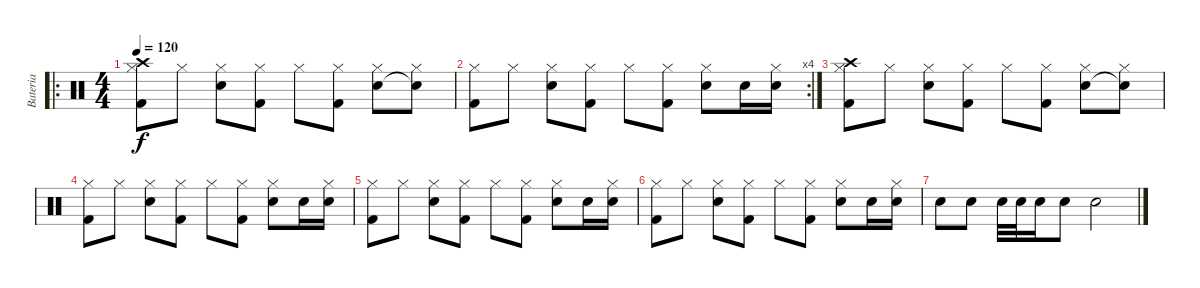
\track ("Bateria" "Bateria") {instrument percussion}
\staff {score}
\articulation defaults
\ro
\ts (4 4)
\tempo 120
\clef neutral
\ks c
("Hi-Hat (closed)" "Crash high (hit)" "Kick (hit) 2").8{dy f} "Hi-Hat (closed)".8 ("Hi-Hat (closed)" "Snare (hit) 2").8 ("Hi-Hat (closed)" "Kick (hit) 2").8 "Hi-Hat (closed)".8 ("Hi-Hat (closed)" "Kick (hit) 2").8 ("Hi-Hat (closed)" "Snare (hit) 2").8 ("Hi-Hat (closed)" "Snare (hit)"{t}).8 |
\rc 4
("Hi-Hat (closed)" "Kick (hit) 2").8 "Hi-Hat (closed)".8 ("Hi-Hat (closed)" "Snare (hit) 2").8 ("Hi-Hat (closed)" "Kick (hit) 2").8 "Hi-Hat (closed)".8 ("Hi-Hat (closed)" "Kick (hit) 2").8 ("Hi-Hat (closed)" "Snare (hit) 2").8 "Snare (hit) 2".16 ("Hi-Hat (closed)" "Snare (hit) 2").16 |
("Hi-Hat (closed)" "Crash high (hit)" "Kick (hit) 2").8 "Hi-Hat (closed)".8 ("Hi-Hat (closed)" "Snare (hit) 2").8 ("Hi-Hat (closed)" "Kick (hit) 2").8 "Hi-Hat (closed)".8 ("Hi-Hat (closed)" "Kick (hit) 2").8 ("Hi-Hat (closed)" "Snare (hit) 2").8 ("Hi-Hat (closed)" "Snare (hit)"{t}).8 |
("Hi-Hat (closed)" "Kick (hit) 2").8 "Hi-Hat (closed)".8 ("Hi-Hat (closed)" "Snare (hit) 2").8 ("Hi-Hat (closed)" "Kick (hit) 2").8 "Hi-Hat (closed)".8 ("Hi-Hat (closed)" "Kick (hit) 2").8 ("Hi-Hat (closed)" "Snare (hit) 2").8 "Snare (hit) 2".16 ("Hi-Hat (closed)" "Snare (hit) 2").16 |
("Hi-Hat (closed)" "Kick (hit) 2").8 "Hi-Hat (closed)".8 ("Hi-Hat (closed)" "Snare (hit) 2").8 ("Hi-Hat (closed)" "Kick (hit) 2").8 "Hi-Hat (closed)".8 ("Hi-Hat (closed)" "Kick (hit) 2").8 ("Hi-Hat (closed)" "Snare (hit) 2").8 "Snare (hit) 2".16 ("Hi-Hat (closed)" "Snare (hit) 2").16 |
("Hi-Hat (closed)" "Kick (hit) 2").8 "Hi-Hat (closed)".8 ("Hi-Hat (closed)" "Snare (hit) 2").8 ("Hi-Hat (closed)" "Kick (hit) 2").8 "Hi-Hat (closed)".8 ("Hi-Hat (closed)" "Kick (hit) 2").8 ("Hi-Hat (closed)" "Snare (hit) 2").8 "Snare (hit) 2".16 ("Hi-Hat (closed)" "Snare (hit) 2").16 |
"Snare (hit) 2".8 "Snare (hit) 2".8 "Snare (hit) 2".32 "Snare (hit) 2".32 "Snare (hit) 2".16 "Snare (hit) 2".8 "Snare (hit) 2".2
